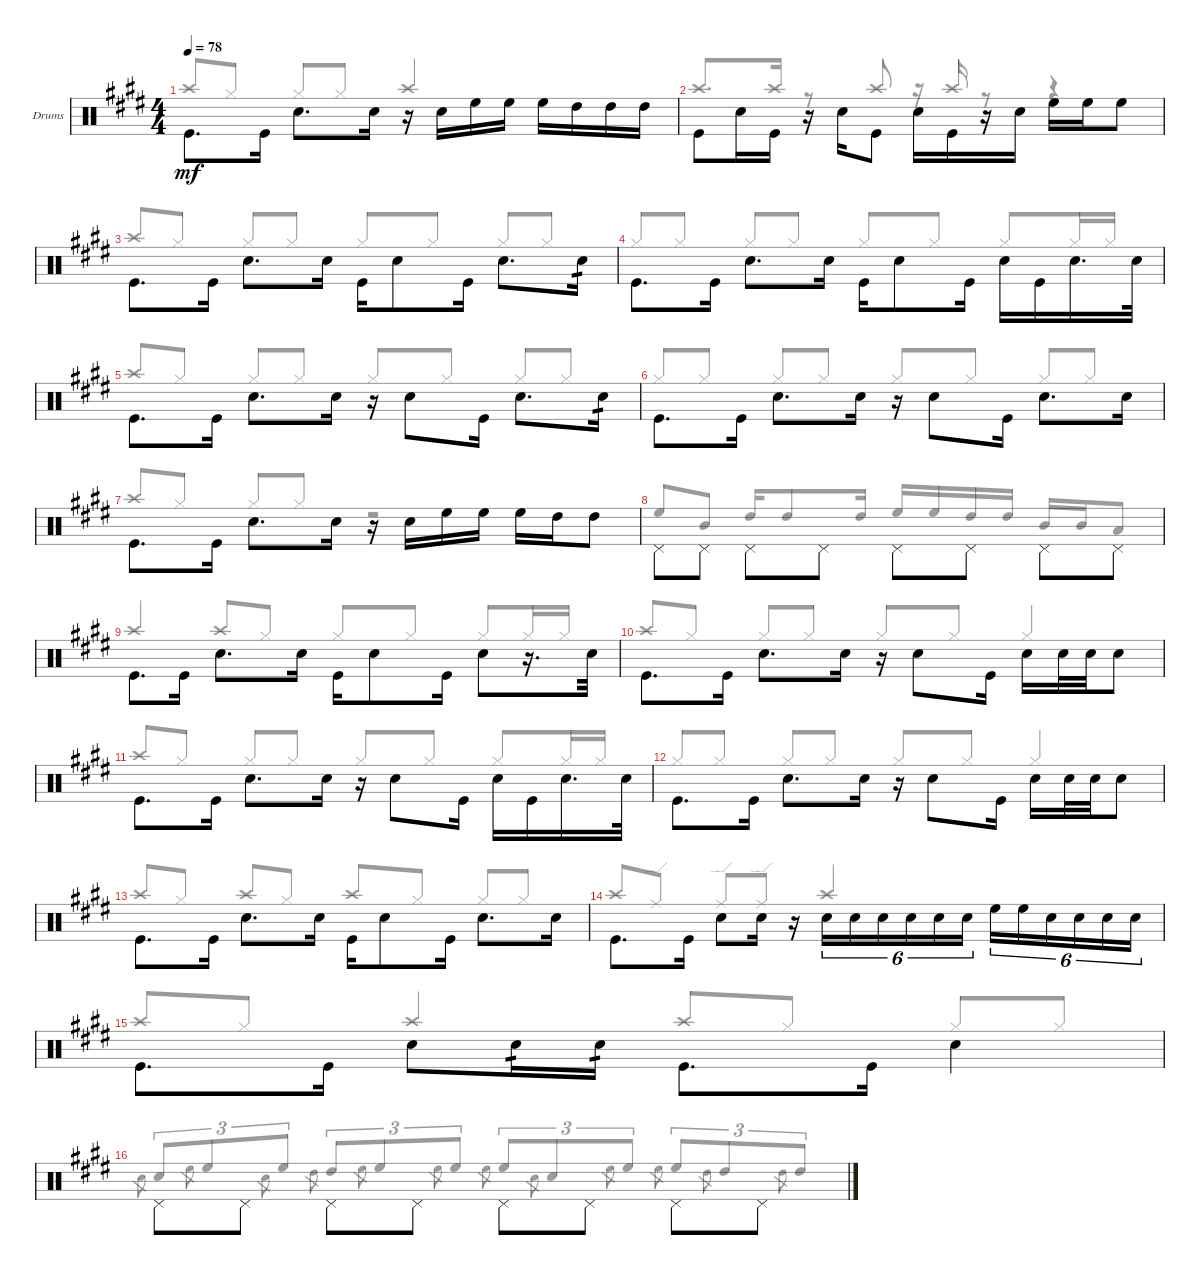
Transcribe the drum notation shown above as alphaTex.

\defaultSystemsLayout 4
\bracketExtendMode groupsimilarinstruments
\firstSystemTrackNameOrientation horizontal
\otherSystemsTrackNameOrientation horizontal
\track ("PETER CRISS" "Drums") {mute instrument percussion}
\staff {score}
\articulation defaults
\voice
\ts (4 4)
\tempo 78
\clef neutral
\ks e "Kick (hit)".8{d dy mf beam invert} "Kick (hit)".16 "Snare (hit) 2".8{d beam invert} "Snare (hit) 2".16
r.16 "Snare (hit) 2".16{beam invert} "High Floor Tom (hit)".16 "High Floor Tom (hit)".16 "High Floor Tom (hit)".16{beam invert} "High Tom (hit)".16 "High Tom (hit)".16 "High Tom (hit)".16 |
"Kick (hit)".8{beam invert} "Snare (hit) 2".16 "Kick (hit)".16 r.16 "Snare (hit) 2".16{beam invert} "Kick (hit)".8 "Snare (hit) 2".16{beam invert} "Kick (hit)".16 r.16 "Snare (hit) 2".16 "High Floor Tom (hit)".16{beam invert} "High Floor Tom (hit)".16 "High Floor Tom (hit)".8 |
"Kick (hit)".8{d beam invert} "Kick (hit)".16 "Snare (hit) 2".8{d beam invert} "Snare (hit) 2".16 "Kick (hit)".16{beam invert} "Snare (hit) 2".8 "Kick (hit)".16 "Snare (hit) 2".8{d beam invert} "Snare (hit) 2".16{tp 1} |
"Kick (hit)".8{d beam invert} "Kick (hit)".16 "Snare (hit) 2".8{d beam invert} "Snare (hit) 2".16 "Kick (hit)".16{beam invert} "Snare (hit) 2".8 "Kick (hit)".16 "Snare (hit) 2".16{beam invert} "Kick (hit)".16 "Snare (hit) 2".16{d} "Snare (hit) 2".32 |
"Kick (hit)".8{d beam invert} "Kick (hit)".16 "Snare (hit) 2".8{d beam invert} "Snare (hit) 2".16 r.16{beam invert} "Snare (hit) 2".8{beam invert} "Kick (hit)".16 "Snare (hit) 2".8{d beam invert} "Snare (hit) 2".16{tp 1} |
"Kick (hit)".8{d beam invert} "Kick (hit)".16 "Snare (hit) 2".8{d beam invert} "Snare (hit) 2".16 r.16{beam invert} "Snare (hit) 2".8{beam invert} "Kick (hit)".16 "Snare (hit) 2".8{d beam invert} "Snare (hit) 2".16 |
"Kick (hit)".8{d beam invert} "Kick (hit)".16 "Snare (hit) 2".8{d beam invert} "Snare (hit) 2".16 r.16{beam invert} "Snare (hit) 2".16{beam invert} "High Floor Tom (hit)".16 "High Floor Tom (hit)".16 "High Floor Tom (hit)".16{beam invert} "High Tom (hit)".16 "High Tom (hit)".8 |
"Pedal Hi-Hat (hit)".8{beam invert} "Pedal Hi-Hat (hit)".8 "Pedal Hi-Hat (hit)".8{beam invert} "Pedal Hi-Hat (hit)".8 "Pedal Hi-Hat (hit)".8{beam invert} "Pedal Hi-Hat (hit)".8 "Pedal Hi-Hat (hit)".8{beam invert} "Pedal Hi-Hat (hit)".8 |
"Kick (hit)".8{d beam invert} "Kick (hit)".16 "Snare (hit) 2".8{d beam invert} "Snare (hit) 2".16 "Kick (hit)".16{beam invert} "Snare (hit) 2".8 "Kick (hit)".16 "Snare (hit) 2".8{beam invert} r.16{d} "Snare (hit) 2".32 |
"Kick (hit)".8{d beam invert} "Kick (hit)".16 "Snare (hit) 2".8{d beam invert} "Snare (hit) 2".16 r.16{beam invert} "Snare (hit) 2".8{beam invert} "Kick (hit)".16 "Snare (hit) 2".16{beam invert} "Snare (hit) 2".32 "Snare (hit) 2".32 "Snare (hit) 2".8 |
"Kick (hit)".8{d beam invert} "Kick (hit)".16 "Snare (hit) 2".8{d beam invert} "Snare (hit) 2".16 r.16{beam invert} "Snare (hit) 2".8{beam invert} "Kick (hit)".16 "Snare (hit) 2".16{beam invert} "Kick (hit)".16 "Snare (hit) 2".16{d} "Snare (hit) 2".32 |
"Kick (hit)".8{d beam invert} "Kick (hit)".16 "Snare (hit) 2".8{d beam invert} "Snare (hit) 2".16 r.16{beam invert} "Snare (hit) 2".8{beam invert} "Kick (hit)".16 "Snare (hit) 2".16{beam invert} "Snare (hit) 2".32 "Snare (hit) 2".32 "Snare (hit) 2".8 |
"Kick (hit)".8{d beam invert} "Kick (hit)".16 "Snare (hit) 2".8{d beam invert} "Snare (hit) 2".16 "Kick (hit)".16{beam invert} "Snare (hit) 2".8 "Kick (hit)".16 "Snare (hit) 2".8{d beam invert} "Snare (hit) 2".16 |
"Kick (hit)".8{d beam invert} "Kick (hit)".16 "Snare (hit) 2".8{beam invert} "Snare (hit) 2".16 r.16 "Snare (hit) 2".16{tu (6 4) beam invert} "Snare (hit) 2".16{tu (6 4)} "Snare (hit) 2".16{tu (6 4)} "Snare (hit) 2".16{tu (6 4)} "Snare (hit) 2".16{tu (6 4)} "Snare (hit) 2".16{tu (6 4)} "High Floor Tom (hit)".16{tu (6 4) beam invert} "High Floor Tom (hit)".16{tu (6 4)} "Snare (hit) 2".16{tu (6 4)} "Snare (hit) 2".16{tu (6 4)} "Snare (hit) 2".16{tu (6 4)} "Snare (hit) 2".16{tu (6 4)} |
"Kick (hit)".8{d beam invert} "Kick (hit)".16 "Snare (hit) 2".8{beam invert} "Snare (hit) 2".16{tp 1} "Snare (hit) 2".16{tp 1} "Kick (hit)".8{d beam invert} "Kick (hit)".16 "Snare (hit) 2".4{beam invert} |
\scale
0.56329 "Pedal Hi-Hat (hit)".8{beam invert} "Pedal Hi-Hat (hit)".8 "Pedal Hi-Hat (hit)".8{beam invert} "Pedal Hi-Hat (hit)".8 "Pedal Hi-Hat (hit)".8{beam invert} "Pedal Hi-Hat (hit)".8 "Pedal Hi-Hat (hit)".8{beam invert} "Pedal Hi-Hat (hit)".8
\voice
\clef neutral
\ottava regular
\simile none
\ks e "Crash high (hit)".8{dy mf beam invert} "Hi-Hat (closed)".8 "Hi-Hat (closed)".8{beam invert} "Hi-Hat (closed)".8 "Crash high (hit)".2{beam invert}
|
"Crash high (hit)".8{d beam invert} "Crash high (hit)".16 r.8 "Crash high (hit)".8{beam invert} r.16 "Crash high (hit)".16{beam invert} r.8 r.4 |
"Crash high (hit)".8{beam invert} "Hi-Hat (closed)".8 "Hi-Hat (closed)".8{beam invert} "Hi-Hat (closed)".8 "Hi-Hat (closed)".8{beam invert} "Hi-Hat (closed)".8 "Hi-Hat (closed)".8{beam invert} "Hi-Hat (closed)".8 |
"Hi-Hat (closed)".8{beam invert} "Hi-Hat (closed)".8 "Hi-Hat (closed)".8{beam invert} "Hi-Hat (closed)".8 "Hi-Hat (closed)".8{beam invert} "Hi-Hat (closed)".8 "Hi-Hat (closed)".8{beam invert} "Hi-Hat (closed)".16 "Hi-Hat (closed)".16 |
"Crash high (hit)".8{beam invert} "Hi-Hat (closed)".8 "Hi-Hat (closed)".8{beam invert} "Hi-Hat (closed)".8 "Hi-Hat (closed)".8{beam invert} "Hi-Hat (closed)".8 "Hi-Hat (closed)".8{beam invert} "Hi-Hat (closed)".8 |
"Hi-Hat (closed)".8{beam invert} "Hi-Hat (closed)".8 "Hi-Hat (closed)".8{beam invert} "Hi-Hat (closed)".8 "Hi-Hat (closed)".8{beam invert} "Hi-Hat (closed)".8 "Hi-Hat (closed)".8{beam invert} "Hi-Hat (closed)".8 |
"Crash high (hit)".8{beam invert} "Hi-Hat (closed)".8 "Hi-Hat (closed)".8{beam invert} "Hi-Hat (closed)".8 r.2 |
"High Floor Tom (hit)".8{beam invert} "Mid Tom (hit)".8 "High Tom (hit)".16{beam invert} "High Tom (hit)".8 "High Tom (hit)".16 "High Floor Tom (hit)".16{beam invert} "High Floor Tom (hit)".16 "High Tom (hit)".16 "High Tom (hit)".16 "Mid Tom (hit)".16{beam invert} "Mid Tom (hit)".16 "Low Tom (hit)".8 |
"Crash high (hit)".4{beam invert} "Crash high (hit)".8{beam invert} "Hi-Hat (closed)".8 "Hi-Hat (closed)".8{beam invert} "Hi-Hat (closed)".8 "Hi-Hat (closed)".8{beam invert} "Hi-Hat (closed)".16 "Hi-Hat (closed)".16 |
"Crash high (hit)".8{beam invert} "Hi-Hat (closed)".8 "Hi-Hat (closed)".8{beam invert} "Hi-Hat (closed)".8 "Hi-Hat (closed)".8{beam invert} "Hi-Hat (closed)".8 "Hi-Hat (closed)".4{beam invert} |
"Crash high (hit)".8{beam invert} "Hi-Hat (closed)".8 "Hi-Hat (closed)".8{beam invert} "Hi-Hat (closed)".8 "Hi-Hat (closed)".8{beam invert} "Hi-Hat (closed)".8 "Hi-Hat (closed)".8{beam invert} "Hi-Hat (closed)".16 "Hi-Hat (closed)".16 |
"Hi-Hat (closed)".8{beam invert} "Hi-Hat (closed)".8 "Hi-Hat (closed)".8{beam invert} "Hi-Hat (closed)".8 "Hi-Hat (closed)".8{beam invert} "Hi-Hat (closed)".8 "Hi-Hat (closed)".4{beam invert} |
"Crash high (hit)".8{beam invert} "Hi-Hat (closed)".8 "Crash high (hit)".8{beam invert} "Hi-Hat (closed)".8 "Crash high (hit)".8{beam invert} "Hi-Hat (closed)".8 "Hi-Hat (closed)".8{beam invert} "Hi-Hat (closed)".8 |
"Crash high (hit)".8{beam invert} "Ride (edge)".8 "Ride (edge)".8{beam invert} "Ride (edge)".8 "Crash high (hit)".2{beam invert} |
"Crash high (hit)".8{beam invert} "Hi-Hat (closed)".8 "Crash high (hit)".4{beam invert} "Crash high (hit)".8{beam invert} "Hi-Hat (closed)".8 "Hi-Hat (closed)".8{beam invert} "Hi-Hat (closed)".8 |
\scale
0.56329 "Snare (hit) 2".8{gr} "Snare (hit) 2".8{tu (3 2) beam invert} "High Floor Tom (hit)".8{tu (3 2) gr} "High Floor Tom (hit)".8{tu (3 2)} "Snare (hit) 2".8{tu (3 2) gr} "High Floor Tom (hit)".8{tu (3 2)} "High Tom (hit)".8{tu (3 2) gr} "High Tom (hit)".8{tu (3 2) beam invert} "High Floor Tom (hit)".8{tu (3 2) gr} "High Floor Tom (hit)".8{tu (3 2)} "High Floor Tom (hit)".8{tu (3 2) gr} "High Floor Tom (hit)".8{tu (3 2)} "High Floor Tom (hit)".8{tu (3 2) gr} "High Floor Tom (hit)".8{tu (3 2) beam invert} "Snare (hit) 2".8{tu (3 2) gr} "Snare (hit) 2".8{tu (3 2)} "High Floor Tom (hit)".8{tu (3 2) gr} "High Floor Tom (hit)".8{tu (3 2)} "High Floor Tom (hit)".8{tu (3 2) gr} "High Floor Tom (hit)".8{tu (3 2) beam invert} "High Tom (hit)".8{tu (3 2) gr} "High Tom (hit)".8{tu (3 2)} "High Tom (hit)".8{tu (3 2) gr} "High Tom (hit)".8{tu (3 2)}
